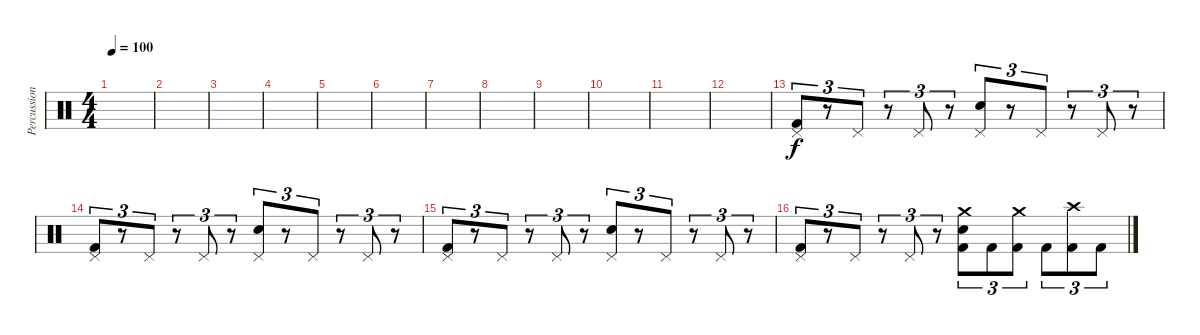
\track ("Percussions" "Percussion") {instrument percussion}
\staff {score}
\articulation defaults
\ts (4 4)
\tempo 100
\clef neutral
\ks c
|
|
|
|
|
|
|
|
|
|
|
|
("Pedal Hi-Hat (hit)" "Kick (hit) 2").8{tu (3 2)} r.8{tu (3 2)} "Pedal Hi-Hat (hit)".8{tu (3 2)} r.8{tu (3 2)} "Pedal Hi-Hat (hit)".8{tu (3 2)} r.8{tu (3 2)} ("Pedal Hi-Hat (hit)" "Electric Snare (hit)").8{tu (3 2)} r.8{tu (3 2)} "Pedal Hi-Hat (hit)".8{tu (3 2)} r.8{tu (3 2)} "Pedal Hi-Hat (hit)".8{tu (3 2)} r.8{tu (3 2)} |
("Pedal Hi-Hat (hit)" "Kick (hit) 2").8{tu (3 2)} r.8{tu (3 2)} "Pedal Hi-Hat (hit)".8{tu (3 2)} r.8{tu (3 2)} "Pedal Hi-Hat (hit)".8{tu (3 2)} r.8{tu (3 2)} ("Pedal Hi-Hat (hit)" "Electric Snare (hit)").8{tu (3 2)} r.8{tu (3 2)} "Pedal Hi-Hat (hit)".8{tu (3 2)} r.8{tu (3 2)} "Pedal Hi-Hat (hit)".8{tu (3 2)} r.8{tu (3 2)} |
("Pedal Hi-Hat (hit)" "Kick (hit) 2").8{tu (3 2)} r.8{tu (3 2)} "Pedal Hi-Hat (hit)".8{tu (3 2)} r.8{tu (3 2)} "Pedal Hi-Hat (hit)".8{tu (3 2)} r.8{tu (3 2)} ("Pedal Hi-Hat (hit)" "Electric Snare (hit)").8{tu (3 2)} r.8{tu (3 2)} "Pedal Hi-Hat (hit)".8{tu (3 2)} r.8{tu (3 2)} "Pedal Hi-Hat (hit)".8{tu (3 2)} r.8{tu (3 2)} |
("Pedal Hi-Hat (hit)" "Kick (hit) 2").8{tu (3 2)} r.8{tu (3 2)} "Pedal Hi-Hat (hit)".8{tu (3 2)} r.8{tu (3 2)} "Pedal Hi-Hat (hit)".8{tu (3 2)} r.8{tu (3 2)} ("Crash medium (hit)" "Electric Snare (hit)" "Kick (hit) 2").8{tu (3 2)} "Kick (hit) 2".8{tu (3 2)} ("Crash medium (hit)" "Kick (hit) 2").8{tu (3 2)} "Kick (hit) 2".8{tu (3 2)} ("Crash high (hit)" "Kick (hit) 2").8{tu (3 2)} "Kick (hit) 2".8{tu (3 2)}
